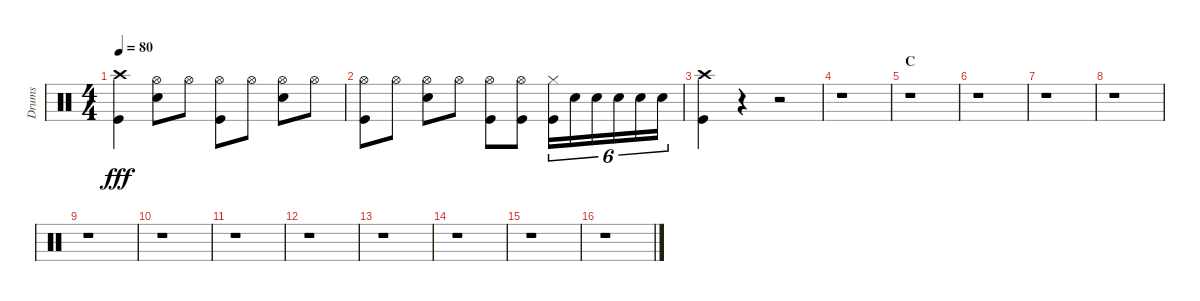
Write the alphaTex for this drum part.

\track ("Drums" "Drums") {instrument percussion}
\staff {score}
\articulation defaults
\ts (4 4)
\tempo 80
\clef neutral
\ks c
("Crash high (hit)" "Kick (hit)").4{dy fff} ("Hi-Hat (open)" "Snare (hit) 2").8 "Hi-Hat (open)".8 ("Hi-Hat (open)" "Kick (hit)").8 "Hi-Hat (open)".8 ("Hi-Hat (open)" "Snare (hit) 2").8 "Hi-Hat (open)".8 |
("Hi-Hat (open)" "Kick (hit)").8 "Hi-Hat (open)".8 ("Hi-Hat (open)" "Snare (hit) 2").8 "Hi-Hat (open)".8 ("Hi-Hat (open)" "Kick (hit)").8 ("Hi-Hat (open)" "Kick (hit)").8 ("Hi-Hat (closed)" "Kick (hit)").16{tu (6 4)} "Snare (hit) 2".16{tu (6 4)} "Snare (hit) 2".16{tu (6 4)} "Snare (hit) 2".16{tu (6 4)} "Snare (hit) 2".16{tu (6 4)} "Snare (hit) 2".16{tu (6 4)} |
("Crash high (hit)" "Kick (hit)").4 r.4 r.2 |
r.1 |
\section ("" "C")
r.1 |
r.1 |
r.1 |
r.1 |
r.1 |
r.1 |
r.1 |
r.1 |
r.1 |
r.1 |
r.1 |
r.1
